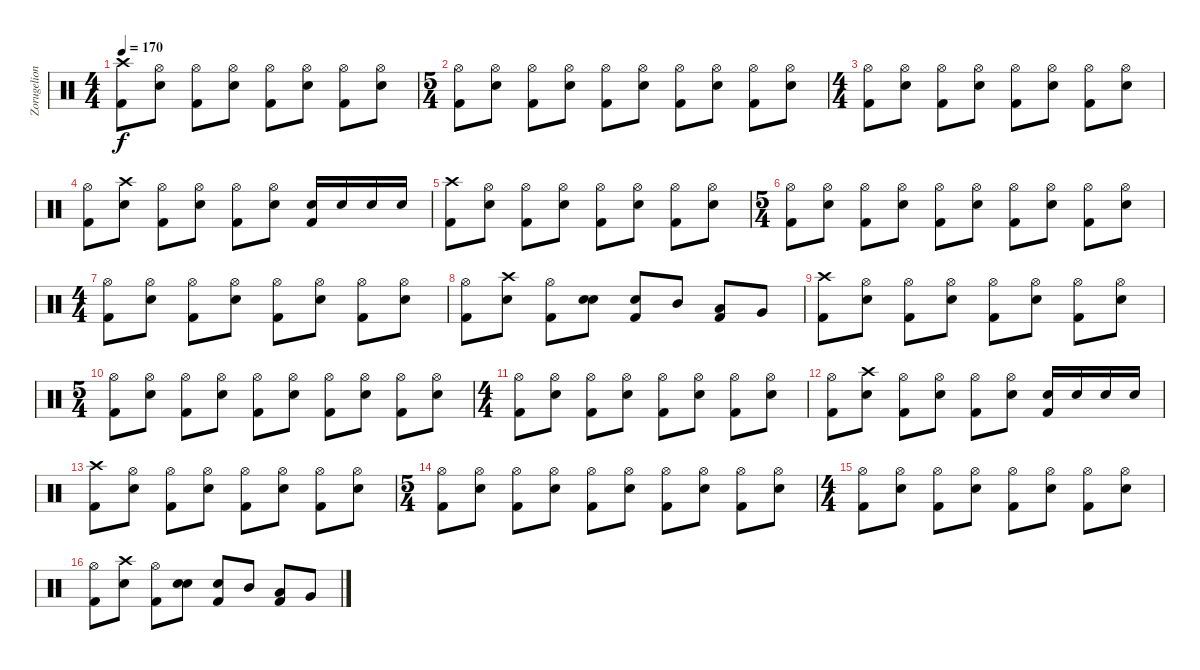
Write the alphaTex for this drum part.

\track ("Zorugelion" "Zorugelion") {instrument percussion}
\staff {score}
\articulation defaults
\ts (4 4)
\tempo 170
\clef neutral
\ks c
("Crash high (hit)" "Kick (hit) 2").8{dy f} ("Hi-Hat (open)" "Electric Snare (hit)").8 ("Hi-Hat (open)" "Kick (hit) 2").8 ("Hi-Hat (open)" "Electric Snare (hit)").8 ("Hi-Hat (open)" "Kick (hit) 2").8 ("Hi-Hat (open)" "Electric Snare (hit)").8 ("Hi-Hat (open)" "Kick (hit) 2").8 ("Hi-Hat (open)" "Electric Snare (hit)").8 |
\ts (5 4)
("Hi-Hat (open)" "Kick (hit) 2").8 ("Hi-Hat (open)" "Electric Snare (hit)").8 ("Hi-Hat (open)" "Kick (hit) 2").8 ("Hi-Hat (open)" "Electric Snare (hit)").8 ("Hi-Hat (open)" "Kick (hit) 2").8 ("Hi-Hat (open)" "Electric Snare (hit)").8 ("Hi-Hat (open)" "Kick (hit) 2").8 ("Hi-Hat (open)" "Electric Snare (hit)").8 ("Hi-Hat (open)" "Kick (hit) 2").8 ("Hi-Hat (open)" "Electric Snare (hit)").8 |
\ts (4 4)
("Hi-Hat (open)" "Kick (hit) 2").8 ("Hi-Hat (open)" "Electric Snare (hit)").8 ("Hi-Hat (open)" "Kick (hit) 2").8 ("Hi-Hat (open)" "Electric Snare (hit)").8 ("Hi-Hat (open)" "Kick (hit) 2").8 ("Hi-Hat (open)" "Electric Snare (hit)").8 ("Hi-Hat (open)" "Kick (hit) 2").8 ("Hi-Hat (open)" "Electric Snare (hit)").8 |
("Hi-Hat (open)" "Kick (hit) 2").8 ("Crash high (hit)" "Electric Snare (hit)").8 ("Hi-Hat (open)" "Kick (hit) 2").8 ("Hi-Hat (open)" "Electric Snare (hit)").8 ("Hi-Hat (open)" "Kick (hit) 2").8 ("Hi-Hat (open)" "Electric Snare (hit)").8 ("Electric Snare (hit)" "Kick (hit) 2").16 "Electric Snare (hit)".16 "Electric Snare (hit)".16 "Electric Snare (hit)".16 |
("Crash high (hit)" "Kick (hit) 2").8 ("Hi-Hat (open)" "Electric Snare (hit)").8 ("Hi-Hat (open)" "Kick (hit) 2").8 ("Hi-Hat (open)" "Electric Snare (hit)").8 ("Hi-Hat (open)" "Kick (hit) 2").8 ("Hi-Hat (open)" "Electric Snare (hit)").8 ("Hi-Hat (open)" "Kick (hit) 2").8 ("Hi-Hat (open)" "Electric Snare (hit)").8 |
\ts (5 4)
("Hi-Hat (open)" "Kick (hit) 2").8 ("Hi-Hat (open)" "Electric Snare (hit)").8 ("Hi-Hat (open)" "Kick (hit) 2").8 ("Hi-Hat (open)" "Electric Snare (hit)").8 ("Hi-Hat (open)" "Kick (hit) 2").8 ("Hi-Hat (open)" "Electric Snare (hit)").8 ("Hi-Hat (open)" "Kick (hit) 2").8 ("Hi-Hat (open)" "Electric Snare (hit)").8 ("Hi-Hat (open)" "Kick (hit) 2").8 ("Hi-Hat (open)" "Electric Snare (hit)").8 |
\ts (4 4)
("Hi-Hat (open)" "Kick (hit) 2").8 ("Hi-Hat (open)" "Electric Snare (hit)").8 ("Hi-Hat (open)" "Kick (hit) 2").8 ("Hi-Hat (open)" "Electric Snare (hit)").8 ("Hi-Hat (open)" "Kick (hit) 2").8 ("Hi-Hat (open)" "Electric Snare (hit)").8 ("Hi-Hat (open)" "Kick (hit) 2").8 ("Hi-Hat (open)" "Electric Snare (hit)").8 |
("Hi-Hat (open)" "Kick (hit) 2").8 ("Crash high (hit)" "Electric Snare (hit)").8 ("Hi-Hat (open)" "Kick (hit) 2").8 ("Snare (hit)" "Electric Snare (hit)").8 ("Electric Snare (hit)" "Kick (hit) 2").8 "Mid Tom (hit)".8 ("Low Tom (hit)" "Kick (hit) 2").8 "Very Low Tom (hit)".8 |
("Crash high (hit)" "Kick (hit) 2").8 ("Hi-Hat (open)" "Electric Snare (hit)").8 ("Hi-Hat (open)" "Kick (hit) 2").8 ("Hi-Hat (open)" "Electric Snare (hit)").8 ("Hi-Hat (open)" "Kick (hit) 2").8 ("Hi-Hat (open)" "Electric Snare (hit)").8 ("Hi-Hat (open)" "Kick (hit) 2").8 ("Hi-Hat (open)" "Electric Snare (hit)").8 |
\ts (5 4)
("Hi-Hat (open)" "Kick (hit) 2").8 ("Hi-Hat (open)" "Electric Snare (hit)").8 ("Hi-Hat (open)" "Kick (hit) 2").8 ("Hi-Hat (open)" "Electric Snare (hit)").8 ("Hi-Hat (open)" "Kick (hit) 2").8 ("Hi-Hat (open)" "Electric Snare (hit)").8 ("Hi-Hat (open)" "Kick (hit) 2").8 ("Hi-Hat (open)" "Electric Snare (hit)").8 ("Hi-Hat (open)" "Kick (hit) 2").8 ("Hi-Hat (open)" "Electric Snare (hit)").8 |
\ts (4 4)
("Hi-Hat (open)" "Kick (hit) 2").8 ("Hi-Hat (open)" "Electric Snare (hit)").8 ("Hi-Hat (open)" "Kick (hit) 2").8 ("Hi-Hat (open)" "Electric Snare (hit)").8 ("Hi-Hat (open)" "Kick (hit) 2").8 ("Hi-Hat (open)" "Electric Snare (hit)").8 ("Hi-Hat (open)" "Kick (hit) 2").8 ("Hi-Hat (open)" "Electric Snare (hit)").8 |
("Hi-Hat (open)" "Kick (hit) 2").8 ("Crash high (hit)" "Electric Snare (hit)").8 ("Hi-Hat (open)" "Kick (hit) 2").8 ("Hi-Hat (open)" "Electric Snare (hit)").8 ("Hi-Hat (open)" "Kick (hit) 2").8 ("Hi-Hat (open)" "Electric Snare (hit)").8 ("Electric Snare (hit)" "Kick (hit) 2").16 "Electric Snare (hit)".16 "Electric Snare (hit)".16 "Electric Snare (hit)".16 |
("Crash high (hit)" "Kick (hit) 2").8 ("Hi-Hat (open)" "Electric Snare (hit)").8 ("Hi-Hat (open)" "Kick (hit) 2").8 ("Hi-Hat (open)" "Electric Snare (hit)").8 ("Hi-Hat (open)" "Kick (hit) 2").8 ("Hi-Hat (open)" "Electric Snare (hit)").8 ("Hi-Hat (open)" "Kick (hit) 2").8 ("Hi-Hat (open)" "Electric Snare (hit)").8 |
\ts (5 4)
("Hi-Hat (open)" "Kick (hit) 2").8 ("Hi-Hat (open)" "Electric Snare (hit)").8 ("Hi-Hat (open)" "Kick (hit) 2").8 ("Hi-Hat (open)" "Electric Snare (hit)").8 ("Hi-Hat (open)" "Kick (hit) 2").8 ("Hi-Hat (open)" "Electric Snare (hit)").8 ("Hi-Hat (open)" "Kick (hit) 2").8 ("Hi-Hat (open)" "Electric Snare (hit)").8 ("Hi-Hat (open)" "Kick (hit) 2").8 ("Hi-Hat (open)" "Electric Snare (hit)").8 |
\ts (4 4)
("Hi-Hat (open)" "Kick (hit) 2").8 ("Hi-Hat (open)" "Electric Snare (hit)").8 ("Hi-Hat (open)" "Kick (hit) 2").8 ("Hi-Hat (open)" "Electric Snare (hit)").8 ("Hi-Hat (open)" "Kick (hit) 2").8 ("Hi-Hat (open)" "Electric Snare (hit)").8 ("Hi-Hat (open)" "Kick (hit) 2").8 ("Hi-Hat (open)" "Electric Snare (hit)").8 |
("Hi-Hat (open)" "Kick (hit) 2").8 ("Crash high (hit)" "Electric Snare (hit)").8 ("Hi-Hat (open)" "Kick (hit) 2").8 ("Snare (hit)" "Electric Snare (hit)").8 ("Electric Snare (hit)" "Kick (hit) 2").8 "Mid Tom (hit)".8 ("Low Tom (hit)" "Kick (hit) 2").8 "Very Low Tom (hit)".8
